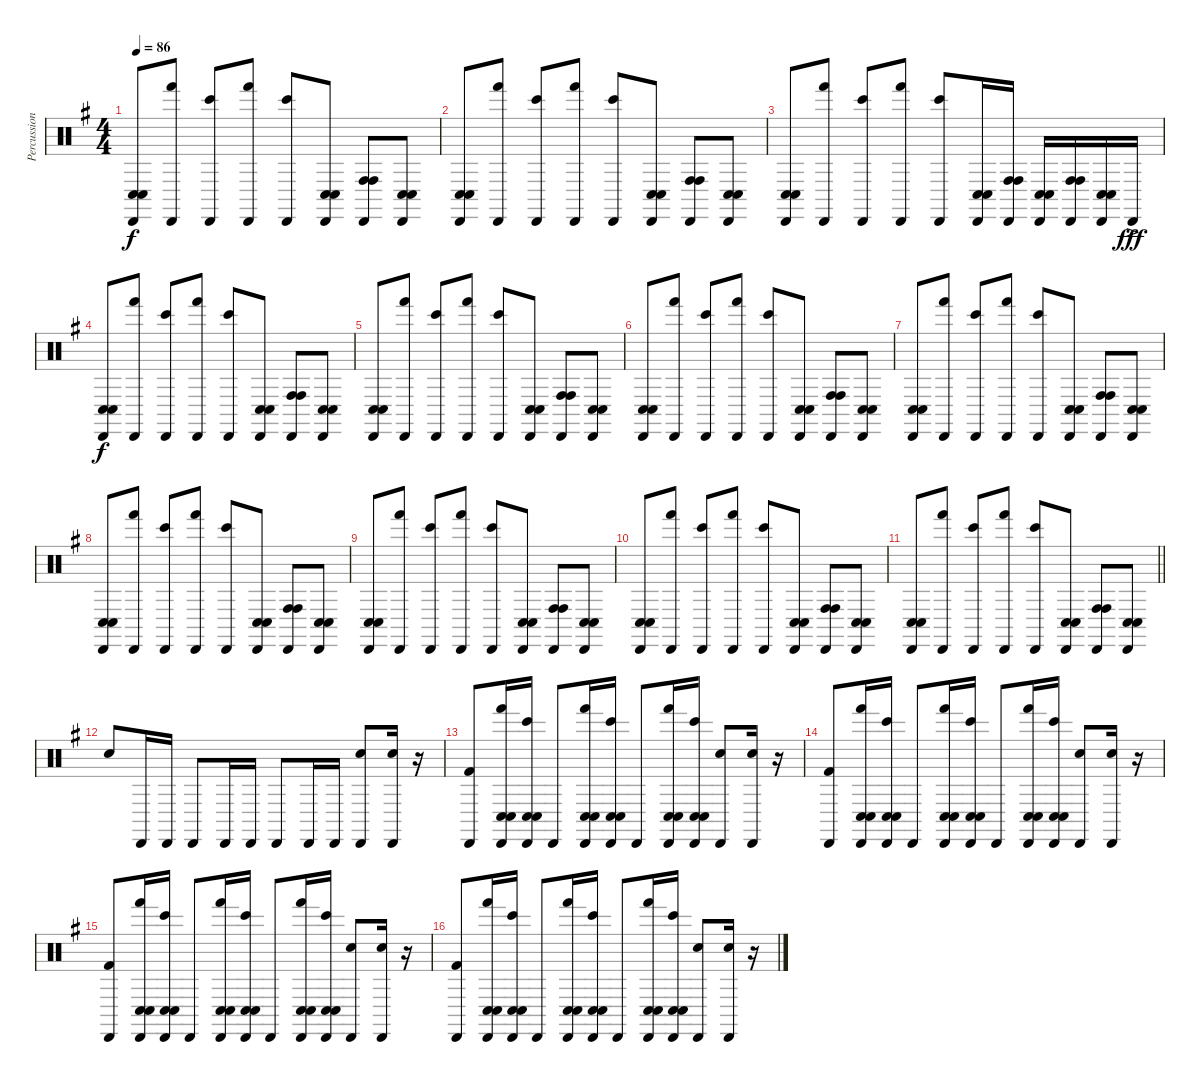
\track ("Percussion" "Percussion") {instrument percussion}
\staff {score}
\articulation defaults
\ts (4 4)
\tempo 86
\clef neutral
\ks g
("Cabasa (hit)" "Conga low (hit)" "Conga low (hit)").8{dy f} ("Cabasa (hit)" "Hand (hit)").8 ("Cabasa (hit)" "Bongo High (hit)").8 ("Cabasa (hit)" "Hand (hit)").8 ("Cabasa (hit)" "Bongo High (hit)").8 ("Cabasa (hit)" "Conga low (hit)" "Conga low (hit)").8 ("Cabasa (hit)" "Conga high (hit)" "Conga high (hit)").8 ("Cabasa (hit)" "Conga low (hit)" "Conga low (hit)").8 |
("Cabasa (hit)" "Conga low (hit)" "Conga low (hit)").8 ("Cabasa (hit)" "Hand (hit)").8 ("Cabasa (hit)" "Bongo High (hit)").8 ("Cabasa (hit)" "Hand (hit)").8 ("Cabasa (hit)" "Bongo High (hit)").8 ("Cabasa (hit)" "Conga low (hit)" "Conga low (hit)").8 ("Cabasa (hit)" "Conga high (hit)" "Conga high (hit)").8 ("Cabasa (hit)" "Conga low (hit)" "Conga low (hit)").8 |
("Cabasa (hit)" "Conga low (hit)" "Conga low (hit)").8 ("Cabasa (hit)" "Hand (hit)").8 ("Cabasa (hit)" "Bongo High (hit)").8 ("Cabasa (hit)" "Hand (hit)").8 ("Cabasa (hit)" "Bongo High (hit)").8 ("Cabasa (hit)" "Conga low (hit)" "Conga low (hit)").16 ("Cabasa (hit)" "Conga high (hit)" "Conga high (hit)").16 ("Cabasa (hit)" "Conga low (hit)" "Conga low (hit)").16 ("Cabasa (hit)" "Conga high (hit)" "Conga high (hit)").16 ("Cabasa (hit)" "Conga low (hit)" "Conga low (hit)").16 "Cabasa (hit)"{ac}.16{dy fff} |
("Cabasa (hit)" "Conga low (hit)" "Conga low (hit)").8{dy f} ("Cabasa (hit)" "Hand (hit)").8 ("Cabasa (hit)" "Bongo High (hit)").8 ("Cabasa (hit)" "Hand (hit)").8 ("Cabasa (hit)" "Bongo High (hit)").8 ("Cabasa (hit)" "Conga low (hit)" "Conga low (hit)").8 ("Cabasa (hit)" "Conga high (hit)" "Conga high (hit)").8 ("Cabasa (hit)" "Conga low (hit)" "Conga low (hit)").8 |
("Cabasa (hit)" "Conga low (hit)" "Conga low (hit)").8 ("Cabasa (hit)" "Hand (hit)").8 ("Cabasa (hit)" "Bongo High (hit)").8 ("Cabasa (hit)" "Hand (hit)").8 ("Cabasa (hit)" "Bongo High (hit)").8 ("Cabasa (hit)" "Conga low (hit)" "Conga low (hit)").8 ("Cabasa (hit)" "Conga high (hit)" "Conga high (hit)").8 ("Cabasa (hit)" "Conga low (hit)" "Conga low (hit)").8 |
("Cabasa (hit)" "Conga low (hit)" "Conga low (hit)").8 ("Cabasa (hit)" "Hand (hit)").8 ("Cabasa (hit)" "Bongo High (hit)").8 ("Cabasa (hit)" "Hand (hit)").8 ("Cabasa (hit)" "Bongo High (hit)").8 ("Cabasa (hit)" "Conga low (hit)" "Conga low (hit)").8 ("Cabasa (hit)" "Conga high (hit)" "Conga high (hit)").8 ("Cabasa (hit)" "Conga low (hit)" "Conga low (hit)").8 |
("Cabasa (hit)" "Conga low (hit)" "Conga low (hit)").8 ("Cabasa (hit)" "Hand (hit)").8 ("Cabasa (hit)" "Bongo High (hit)").8 ("Cabasa (hit)" "Hand (hit)").8 ("Cabasa (hit)" "Bongo High (hit)").8 ("Cabasa (hit)" "Conga low (hit)" "Conga low (hit)").8 ("Cabasa (hit)" "Conga high (hit)" "Conga high (hit)").8 ("Cabasa (hit)" "Conga low (hit)" "Conga low (hit)").8 |
("Cabasa (hit)" "Conga low (hit)" "Conga low (hit)").8 ("Cabasa (hit)" "Hand (hit)").8 ("Cabasa (hit)" "Bongo High (hit)").8 ("Cabasa (hit)" "Hand (hit)").8 ("Cabasa (hit)" "Bongo High (hit)").8 ("Cabasa (hit)" "Conga low (hit)" "Conga low (hit)").8 ("Cabasa (hit)" "Conga high (hit)" "Conga high (hit)").8 ("Cabasa (hit)" "Conga low (hit)" "Conga low (hit)").8 |
("Cabasa (hit)" "Conga low (hit)" "Conga low (hit)").8 ("Cabasa (hit)" "Hand (hit)").8 ("Cabasa (hit)" "Bongo High (hit)").8 ("Cabasa (hit)" "Hand (hit)").8 ("Cabasa (hit)" "Bongo High (hit)").8 ("Cabasa (hit)" "Conga low (hit)" "Conga low (hit)").8 ("Cabasa (hit)" "Conga high (hit)" "Conga high (hit)").8 ("Cabasa (hit)" "Conga low (hit)" "Conga low (hit)").8 |
("Cabasa (hit)" "Conga low (hit)" "Conga low (hit)").8 ("Cabasa (hit)" "Hand (hit)").8 ("Cabasa (hit)" "Bongo High (hit)").8 ("Cabasa (hit)" "Hand (hit)").8 ("Cabasa (hit)" "Bongo High (hit)").8 ("Cabasa (hit)" "Conga low (hit)" "Conga low (hit)").8 ("Cabasa (hit)" "Conga high (hit)" "Conga high (hit)").8 ("Cabasa (hit)" "Conga low (hit)" "Conga low (hit)").8 |
\barLineRight lightlight
("Cabasa (hit)" "Conga low (hit)" "Conga low (hit)").8 ("Cabasa (hit)" "Hand (hit)").8 ("Cabasa (hit)" "Bongo High (hit)").8 ("Cabasa (hit)" "Hand (hit)").8 ("Cabasa (hit)" "Bongo High (hit)").8 ("Cabasa (hit)" "Conga low (hit)" "Conga low (hit)").8 ("Cabasa (hit)" "Conga high (hit)" "Conga high (hit)").8 ("Cabasa (hit)" "Conga low (hit)" "Conga low (hit)").8 |
"Electric Snare (hit)".8 "Cabasa (hit)".16 "Cabasa (hit)".16 "Cabasa (hit)".8 "Cabasa (hit)".16 "Cabasa (hit)".16 "Cabasa (hit)".8 "Cabasa (hit)".16 "Cabasa (hit)".16 ("Cabasa (hit)" "Electric Snare (hit)").8 ("Cabasa (hit)" "Electric Snare (hit)").16 r.16 |
("Cabasa (hit)" "Kick (hit) 2").8 ("Cabasa (hit)" "Conga low (hit)" "Conga low (hit)" "Hand (hit)").16 ("Cabasa (hit)" "Conga low (hit)" "Conga low (hit)" "Bongo High (hit)").16 "Cabasa (hit)".8 ("Cabasa (hit)" "Conga low (hit)" "Conga low (hit)" "Hand (hit)").16 ("Cabasa (hit)" "Conga low (hit)" "Conga low (hit)" "Bongo High (hit)").16 "Cabasa (hit)".8 ("Cabasa (hit)" "Conga low (hit)" "Conga low (hit)" "Hand (hit)").16 ("Cabasa (hit)" "Conga low (hit)" "Conga low (hit)" "Bongo High (hit)").16 ("Cabasa (hit)" "Electric Snare (hit)").8 ("Cabasa (hit)" "Electric Snare (hit)").16 r.16 |
("Cabasa (hit)" "Kick (hit) 2").8 ("Cabasa (hit)" "Conga low (hit)" "Conga low (hit)" "Hand (hit)").16 ("Cabasa (hit)" "Conga low (hit)" "Conga low (hit)" "Bongo High (hit)").16 "Cabasa (hit)".8 ("Cabasa (hit)" "Conga low (hit)" "Conga low (hit)" "Hand (hit)").16 ("Cabasa (hit)" "Conga low (hit)" "Conga low (hit)" "Bongo High (hit)").16 "Cabasa (hit)".8 ("Cabasa (hit)" "Conga low (hit)" "Conga low (hit)" "Hand (hit)").16 ("Cabasa (hit)" "Conga low (hit)" "Conga low (hit)" "Bongo High (hit)").16 ("Cabasa (hit)" "Electric Snare (hit)").8 ("Cabasa (hit)" "Electric Snare (hit)").16 r.16 |
("Cabasa (hit)" "Kick (hit) 2").8 ("Cabasa (hit)" "Conga low (hit)" "Conga low (hit)" "Hand (hit)").16 ("Cabasa (hit)" "Conga low (hit)" "Conga low (hit)" "Bongo High (hit)").16 "Cabasa (hit)".8 ("Cabasa (hit)" "Conga low (hit)" "Conga low (hit)" "Hand (hit)").16 ("Cabasa (hit)" "Conga low (hit)" "Conga low (hit)" "Bongo High (hit)").16 "Cabasa (hit)".8 ("Cabasa (hit)" "Conga low (hit)" "Conga low (hit)" "Hand (hit)").16 ("Cabasa (hit)" "Conga low (hit)" "Conga low (hit)" "Bongo High (hit)").16 ("Cabasa (hit)" "Electric Snare (hit)").8 ("Cabasa (hit)" "Electric Snare (hit)").16 r.16 |
("Cabasa (hit)" "Kick (hit) 2").8 ("Cabasa (hit)" "Conga low (hit)" "Conga low (hit)" "Hand (hit)").16 ("Cabasa (hit)" "Conga low (hit)" "Conga low (hit)" "Bongo High (hit)").16 "Cabasa (hit)".8 ("Cabasa (hit)" "Conga low (hit)" "Conga low (hit)" "Hand (hit)").16 ("Cabasa (hit)" "Conga low (hit)" "Conga low (hit)" "Bongo High (hit)").16 "Cabasa (hit)".8 ("Cabasa (hit)" "Conga low (hit)" "Conga low (hit)" "Hand (hit)").16 ("Cabasa (hit)" "Conga low (hit)" "Conga low (hit)" "Bongo High (hit)").16 ("Cabasa (hit)" "Electric Snare (hit)").8 ("Cabasa (hit)" "Electric Snare (hit)").16 r.16
